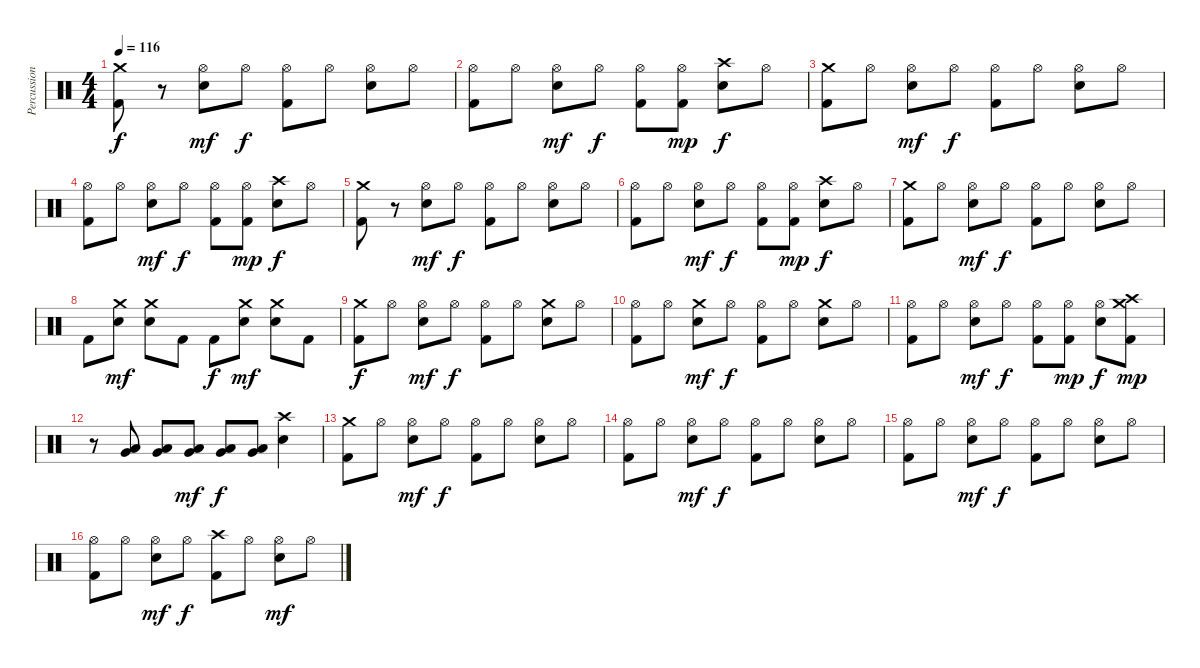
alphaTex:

\track ("Percussion" "Percussion") {instrument percussion}
\staff {score}
\articulation defaults
\ts (4 4)
\tempo 116
\clef neutral
\ks c
("Kick (hit) 2" "Crash medium (hit)").8{dy f} r.8 ("Snare (hit) 2" "Hi-Hat (open)").8{dy mf} "Hi-Hat (open)".8{dy f} ("Kick (hit) 2" "Hi-Hat (open)").8 "Hi-Hat (open)".8 ("Snare (hit) 2" "Hi-Hat (open)").8 "Hi-Hat (open)".8 |
("Kick (hit) 2" "Hi-Hat (open)").8 "Hi-Hat (open)".8 ("Snare (hit) 2" "Hi-Hat (open)").8{dy mf} "Hi-Hat (open)".8{dy f} ("Kick (hit) 2" "Hi-Hat (open)").8 ("Kick (hit) 2" "Hi-Hat (open)").8{dy mp} ("Snare (hit) 2" "Crash high (hit)").8{dy f} "Hi-Hat (open)".8 |
("Kick (hit) 2" "Crash medium (hit)").8 "Hi-Hat (open)".8 ("Snare (hit) 2" "Hi-Hat (open)").8{dy mf} "Hi-Hat (open)".8{dy f} ("Kick (hit) 2" "Hi-Hat (open)").8 "Hi-Hat (open)".8 ("Snare (hit) 2" "Hi-Hat (open)").8 "Hi-Hat (open)".8 |
("Kick (hit) 2" "Hi-Hat (open)").8 "Hi-Hat (open)".8 ("Snare (hit) 2" "Hi-Hat (open)").8{dy mf} "Hi-Hat (open)".8{dy f} ("Kick (hit) 2" "Hi-Hat (open)").8 ("Kick (hit) 2" "Hi-Hat (open)").8{dy mp} ("Snare (hit) 2" "Crash high (hit)").8{dy f} "Hi-Hat (open)".8 |
("Kick (hit) 2" "Crash medium (hit)").8 r.8 ("Snare (hit) 2" "Hi-Hat (open)").8{dy mf} "Hi-Hat (open)".8{dy f} ("Kick (hit) 2" "Hi-Hat (open)").8 "Hi-Hat (open)".8 ("Snare (hit) 2" "Hi-Hat (open)").8 "Hi-Hat (open)".8 |
("Kick (hit) 2" "Hi-Hat (open)").8 "Hi-Hat (open)".8 ("Snare (hit) 2" "Hi-Hat (open)").8{dy mf} "Hi-Hat (open)".8{dy f} ("Kick (hit) 2" "Hi-Hat (open)").8 ("Kick (hit) 2" "Hi-Hat (open)").8{dy mp} ("Snare (hit) 2" "Crash high (hit)").8{dy f} "Hi-Hat (open)".8 |
("Kick (hit) 2" "Crash medium (hit)").8 "Hi-Hat (open)".8 ("Snare (hit) 2" "Hi-Hat (open)").8{dy mf} "Hi-Hat (open)".8{dy f} ("Kick (hit) 2" "Hi-Hat (open)").8 "Hi-Hat (open)".8 ("Snare (hit) 2" "Hi-Hat (open)").8 "Hi-Hat (open)".8 |
"Kick (hit) 2".8 ("Snare (hit) 2" "Crash medium (hit)").8{dy mf} ("Snare (hit) 2" "Crash medium (hit)").8 "Kick (hit) 2".8 "Kick (hit) 2".8{dy f} ("Snare (hit) 2" "Crash medium (hit)").8{dy mf} ("Snare (hit) 2" "Crash medium (hit)").8 "Kick (hit) 2".8 |
("Kick (hit) 2" "Crash medium (hit)").8{dy f} "Hi-Hat (open)".8 ("Snare (hit) 2" "Hi-Hat (open)").8{dy mf} "Hi-Hat (open)".8{dy f} ("Kick (hit) 2" "Hi-Hat (open)").8 "Hi-Hat (open)".8 ("Snare (hit) 2" "Crash medium (hit)").8 "Hi-Hat (open)".8 |
("Kick (hit) 2" "Hi-Hat (open)").8 "Hi-Hat (open)".8 ("Snare (hit) 2" "Crash medium (hit)").8{dy mf} "Hi-Hat (open)".8{dy f} ("Kick (hit) 2" "Hi-Hat (open)").8 "Hi-Hat (open)".8 ("Snare (hit) 2" "Crash medium (hit)").8 "Hi-Hat (open)".8 |
("Kick (hit) 2" "Hi-Hat (open)").8 "Hi-Hat (open)".8 ("Snare (hit) 2" "Hi-Hat (open)").8{dy mf} "Hi-Hat (open)".8{dy f} ("Kick (hit) 2" "Hi-Hat (open)").8 ("Kick (hit) 2" "Hi-Hat (open)").8{dy mp} ("Snare (hit) 2" "Hi-Hat (open)").8{dy f} ("Kick (hit) 2" "Crash high (hit)" "Crash medium (hit)").8{dy mp} |
r.8 ("Very Low Tom (hit)" "Low Tom (hit)").8 ("Very Low Tom (hit)" "Low Tom (hit)").8 ("Very Low Tom (hit)" "Low Tom (hit)").8{dy mf} ("Very Low Tom (hit)" "Low Tom (hit)").8{dy f} ("Very Low Tom (hit)" "Low Tom (hit)").8 ("Snare (hit) 2" "Crash high (hit)").4 |
("Kick (hit) 2" "Crash medium (hit)").8 "Hi-Hat (open)".8 ("Snare (hit) 2" "Hi-Hat (open)").8{dy mf} "Hi-Hat (open)".8{dy f} ("Kick (hit) 2" "Hi-Hat (open)").8 "Hi-Hat (open)".8 ("Snare (hit) 2" "Hi-Hat (open)").8 "Hi-Hat (open)".8 |
("Kick (hit) 2" "Hi-Hat (open)").8 "Hi-Hat (open)".8 ("Snare (hit) 2" "Hi-Hat (open)").8{dy mf} "Hi-Hat (open)".8{dy f} ("Kick (hit) 2" "Hi-Hat (open)").8 "Hi-Hat (open)".8 ("Snare (hit) 2" "Hi-Hat (open)").8 "Hi-Hat (open)".8 |
("Kick (hit) 2" "Hi-Hat (open)").8 "Hi-Hat (open)".8 ("Snare (hit) 2" "Hi-Hat (open)").8{dy mf} "Hi-Hat (open)".8{dy f} ("Kick (hit) 2" "Hi-Hat (open)").8 "Hi-Hat (open)".8 ("Snare (hit) 2" "Hi-Hat (open)").8 "Hi-Hat (open)".8 |
("Kick (hit) 2" "Hi-Hat (open)").8 "Hi-Hat (open)".8 ("Snare (hit) 2" "Hi-Hat (open)").8{dy mf} "Hi-Hat (open)".8{dy f} ("Kick (hit) 2" "Crash high (hit)").8 "Hi-Hat (open)".8 ("Snare (hit) 2" "Hi-Hat (open)").8{dy mf} "Hi-Hat (open)".8
